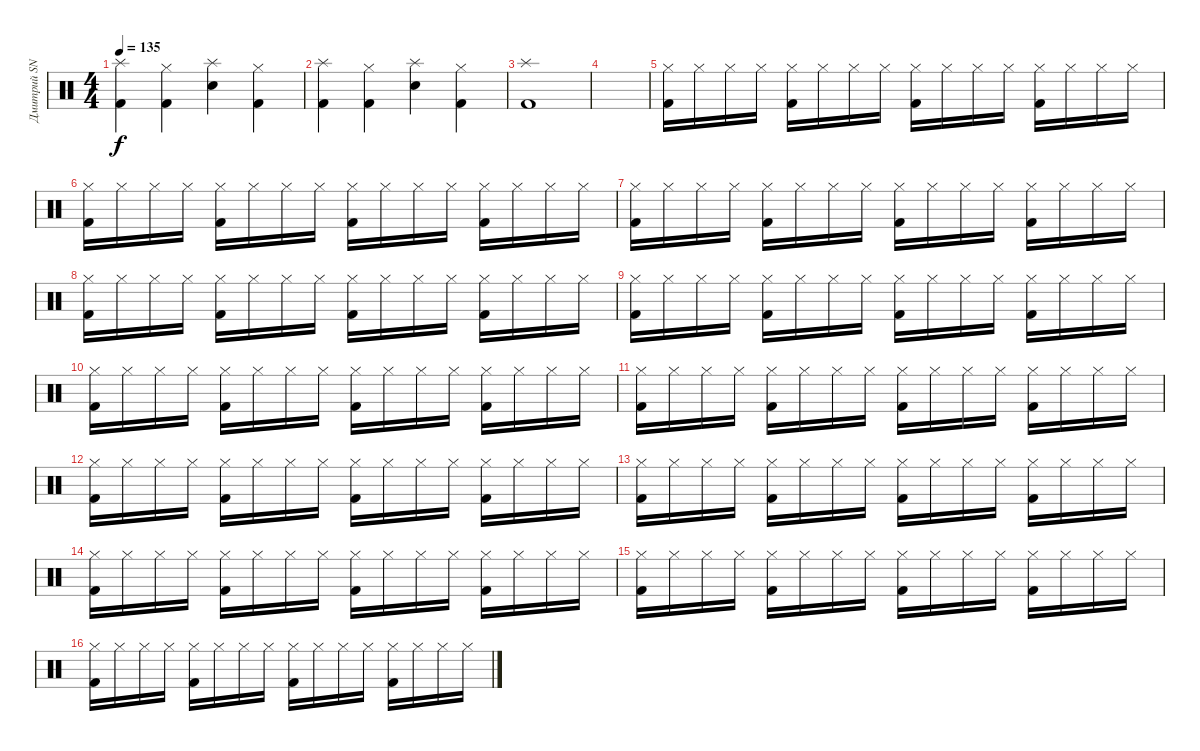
\track ("Дмитрий SNAKE Хакимов" "Дмитрий SN") {instrument percussion}
\staff {score}
\articulation defaults
\ts (4 4)
\tempo 135
\clef neutral
\ks c
("Splash (hit)" "Kick (hit) 2").4{dy f} ("Hi-Hat (closed)" "Kick (hit) 2").4 ("Splash (hit)" "Snare (hit) 2").4 ("Hi-Hat (closed)" "Kick (hit) 2").4 |
("Splash (hit)" "Kick (hit) 2").4 ("Hi-Hat (closed)" "Kick (hit) 2").4 ("Splash (hit)" "Snare (hit) 2").4 ("Hi-Hat (closed)" "Kick (hit) 2").4 |
("Splash (hit)" "Kick (hit) 2").1 |
|
("Hi-Hat (closed)" "Kick (hit) 2").16 "Hi-Hat (closed)".16 "Hi-Hat (closed)".16 "Hi-Hat (closed)".16 ("Hi-Hat (closed)" "Kick (hit) 2").16 "Hi-Hat (closed)".16 "Hi-Hat (closed)".16 "Hi-Hat (closed)".16 ("Hi-Hat (closed)" "Kick (hit) 2").16 "Hi-Hat (closed)".16 "Hi-Hat (closed)".16 "Hi-Hat (closed)".16 ("Hi-Hat (closed)" "Kick (hit) 2").16 "Hi-Hat (closed)".16 "Hi-Hat (closed)".16 "Hi-Hat (closed)".16 |
("Hi-Hat (closed)" "Kick (hit) 2").16 "Hi-Hat (closed)".16 "Hi-Hat (closed)".16 "Hi-Hat (closed)".16 ("Hi-Hat (closed)" "Kick (hit) 2").16 "Hi-Hat (closed)".16 "Hi-Hat (closed)".16 "Hi-Hat (closed)".16 ("Hi-Hat (closed)" "Kick (hit) 2").16 "Hi-Hat (closed)".16 "Hi-Hat (closed)".16 "Hi-Hat (closed)".16 ("Hi-Hat (closed)" "Kick (hit) 2").16 "Hi-Hat (closed)".16 "Hi-Hat (closed)".16 "Hi-Hat (closed)".16 |
("Hi-Hat (closed)" "Kick (hit) 2").16 "Hi-Hat (closed)".16 "Hi-Hat (closed)".16 "Hi-Hat (closed)".16 ("Hi-Hat (closed)" "Kick (hit) 2").16 "Hi-Hat (closed)".16 "Hi-Hat (closed)".16 "Hi-Hat (closed)".16 ("Hi-Hat (closed)" "Kick (hit) 2").16 "Hi-Hat (closed)".16 "Hi-Hat (closed)".16 "Hi-Hat (closed)".16 ("Hi-Hat (closed)" "Kick (hit) 2").16 "Hi-Hat (closed)".16 "Hi-Hat (closed)".16 "Hi-Hat (closed)".16 |
("Hi-Hat (closed)" "Kick (hit) 2").16 "Hi-Hat (closed)".16 "Hi-Hat (closed)".16 "Hi-Hat (closed)".16 ("Hi-Hat (closed)" "Kick (hit) 2").16 "Hi-Hat (closed)".16 "Hi-Hat (closed)".16 "Hi-Hat (closed)".16 ("Hi-Hat (closed)" "Kick (hit) 2").16 "Hi-Hat (closed)".16 "Hi-Hat (closed)".16 "Hi-Hat (closed)".16 ("Hi-Hat (closed)" "Kick (hit) 2").16 "Hi-Hat (closed)".16 "Hi-Hat (closed)".16 "Hi-Hat (closed)".16 |
("Hi-Hat (closed)" "Kick (hit) 2").16 "Hi-Hat (closed)".16 "Hi-Hat (closed)".16 "Hi-Hat (closed)".16 ("Hi-Hat (closed)" "Kick (hit) 2").16 "Hi-Hat (closed)".16 "Hi-Hat (closed)".16 "Hi-Hat (closed)".16 ("Hi-Hat (closed)" "Kick (hit) 2").16 "Hi-Hat (closed)".16 "Hi-Hat (closed)".16 "Hi-Hat (closed)".16 ("Hi-Hat (closed)" "Kick (hit) 2").16 "Hi-Hat (closed)".16 "Hi-Hat (closed)".16 "Hi-Hat (closed)".16 |
("Hi-Hat (closed)" "Kick (hit) 2").16 "Hi-Hat (closed)".16 "Hi-Hat (closed)".16 "Hi-Hat (closed)".16 ("Hi-Hat (closed)" "Kick (hit) 2").16 "Hi-Hat (closed)".16 "Hi-Hat (closed)".16 "Hi-Hat (closed)".16 ("Hi-Hat (closed)" "Kick (hit) 2").16 "Hi-Hat (closed)".16 "Hi-Hat (closed)".16 "Hi-Hat (closed)".16 ("Hi-Hat (closed)" "Kick (hit) 2").16 "Hi-Hat (closed)".16 "Hi-Hat (closed)".16 "Hi-Hat (closed)".16 |
("Hi-Hat (closed)" "Kick (hit) 2").16 "Hi-Hat (closed)".16 "Hi-Hat (closed)".16 "Hi-Hat (closed)".16 ("Hi-Hat (closed)" "Kick (hit) 2").16 "Hi-Hat (closed)".16 "Hi-Hat (closed)".16 "Hi-Hat (closed)".16 ("Hi-Hat (closed)" "Kick (hit) 2").16 "Hi-Hat (closed)".16 "Hi-Hat (closed)".16 "Hi-Hat (closed)".16 ("Hi-Hat (closed)" "Kick (hit) 2").16 "Hi-Hat (closed)".16 "Hi-Hat (closed)".16 "Hi-Hat (closed)".16 |
("Hi-Hat (closed)" "Kick (hit) 2").16 "Hi-Hat (closed)".16 "Hi-Hat (closed)".16 "Hi-Hat (closed)".16 ("Hi-Hat (closed)" "Kick (hit) 2").16 "Hi-Hat (closed)".16 "Hi-Hat (closed)".16 "Hi-Hat (closed)".16 ("Hi-Hat (closed)" "Kick (hit) 2").16 "Hi-Hat (closed)".16 "Hi-Hat (closed)".16 "Hi-Hat (closed)".16 ("Hi-Hat (closed)" "Kick (hit) 2").16 "Hi-Hat (closed)".16 "Hi-Hat (closed)".16 "Hi-Hat (closed)".16 |
("Hi-Hat (closed)" "Kick (hit) 2").16 "Hi-Hat (closed)".16 "Hi-Hat (closed)".16 "Hi-Hat (closed)".16 ("Hi-Hat (closed)" "Kick (hit) 2").16 "Hi-Hat (closed)".16 "Hi-Hat (closed)".16 "Hi-Hat (closed)".16 ("Hi-Hat (closed)" "Kick (hit) 2").16 "Hi-Hat (closed)".16 "Hi-Hat (closed)".16 "Hi-Hat (closed)".16 ("Hi-Hat (closed)" "Kick (hit) 2").16 "Hi-Hat (closed)".16 "Hi-Hat (closed)".16 "Hi-Hat (closed)".16 |
("Hi-Hat (closed)" "Kick (hit) 2").16 "Hi-Hat (closed)".16 "Hi-Hat (closed)".16 "Hi-Hat (closed)".16 ("Hi-Hat (closed)" "Kick (hit) 2").16 "Hi-Hat (closed)".16 "Hi-Hat (closed)".16 "Hi-Hat (closed)".16 ("Hi-Hat (closed)" "Kick (hit) 2").16 "Hi-Hat (closed)".16 "Hi-Hat (closed)".16 "Hi-Hat (closed)".16 ("Hi-Hat (closed)" "Kick (hit) 2").16 "Hi-Hat (closed)".16 "Hi-Hat (closed)".16 "Hi-Hat (closed)".16 |
("Hi-Hat (closed)" "Kick (hit) 2").16 "Hi-Hat (closed)".16 "Hi-Hat (closed)".16 "Hi-Hat (closed)".16 ("Hi-Hat (closed)" "Kick (hit) 2").16 "Hi-Hat (closed)".16 "Hi-Hat (closed)".16 "Hi-Hat (closed)".16 ("Hi-Hat (closed)" "Kick (hit) 2").16 "Hi-Hat (closed)".16 "Hi-Hat (closed)".16 "Hi-Hat (closed)".16 ("Hi-Hat (closed)" "Kick (hit) 2").16 "Hi-Hat (closed)".16 "Hi-Hat (closed)".16 "Hi-Hat (closed)".16 |
("Hi-Hat (closed)" "Kick (hit) 2").16 "Hi-Hat (closed)".16 "Hi-Hat (closed)".16 "Hi-Hat (closed)".16 ("Hi-Hat (closed)" "Kick (hit) 2").16 "Hi-Hat (closed)".16 "Hi-Hat (closed)".16 "Hi-Hat (closed)".16 ("Hi-Hat (closed)" "Kick (hit) 2").16 "Hi-Hat (closed)".16 "Hi-Hat (closed)".16 "Hi-Hat (closed)".16 ("Hi-Hat (closed)" "Kick (hit) 2").16 "Hi-Hat (closed)".16 "Hi-Hat (closed)".16 "Hi-Hat (closed)".16
